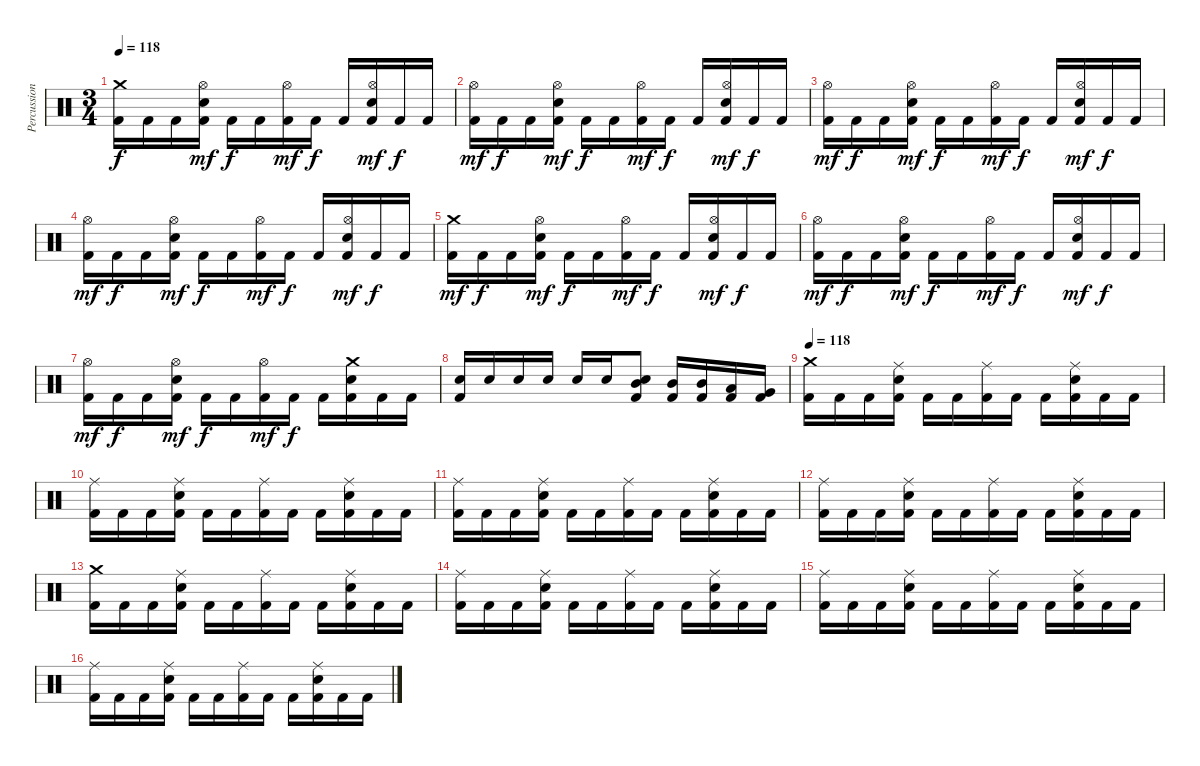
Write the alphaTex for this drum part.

\track ("Percussion" "Percussion") {instrument percussion}
\staff {score}
\articulation defaults
\ts (3 4)
\tempo 118
\clef neutral
\ks c
("Crash medium (hit)" "Kick (hit) 2").16{dy f} "Kick (hit) 2".16 "Kick (hit) 2".16 ("Hi-Hat (open)" "Electric Snare (hit)" "Kick (hit) 2").16{dy mf} "Kick (hit) 2".16{dy f} "Kick (hit) 2".16 ("Hi-Hat (open)" "Kick (hit) 2").16{dy mf} "Kick (hit) 2".16{dy f} "Kick (hit) 2".16 ("Hi-Hat (open)" "Electric Snare (hit)" "Kick (hit) 2").16{dy mf} "Kick (hit) 2".16{dy f} "Kick (hit) 2".16 |
("Hi-Hat (open)" "Kick (hit) 2").16{dy mf} "Kick (hit) 2".16{dy f} "Kick (hit) 2".16 ("Hi-Hat (open)" "Electric Snare (hit)" "Kick (hit) 2").16{dy mf} "Kick (hit) 2".16{dy f} "Kick (hit) 2".16 ("Hi-Hat (open)" "Kick (hit) 2").16{dy mf} "Kick (hit) 2".16{dy f} "Kick (hit) 2".16 ("Hi-Hat (open)" "Electric Snare (hit)" "Kick (hit) 2").16{dy mf} "Kick (hit) 2".16{dy f} "Kick (hit) 2".16 |
("Hi-Hat (open)" "Kick (hit) 2").16{dy mf} "Kick (hit) 2".16{dy f} "Kick (hit) 2".16 ("Hi-Hat (open)" "Electric Snare (hit)" "Kick (hit) 2").16{dy mf} "Kick (hit) 2".16{dy f} "Kick (hit) 2".16 ("Hi-Hat (open)" "Kick (hit) 2").16{dy mf} "Kick (hit) 2".16{dy f} "Kick (hit) 2".16 ("Hi-Hat (open)" "Electric Snare (hit)" "Kick (hit) 2").16{dy mf} "Kick (hit) 2".16{dy f} "Kick (hit) 2".16 |
("Hi-Hat (open)" "Kick (hit) 2").16{dy mf} "Kick (hit) 2".16{dy f} "Kick (hit) 2".16 ("Hi-Hat (open)" "Electric Snare (hit)" "Kick (hit) 2").16{dy mf} "Kick (hit) 2".16{dy f} "Kick (hit) 2".16 ("Hi-Hat (open)" "Kick (hit) 2").16{dy mf} "Kick (hit) 2".16{dy f} "Kick (hit) 2".16 ("Hi-Hat (open)" "Electric Snare (hit)" "Kick (hit) 2").16{dy mf} "Kick (hit) 2".16{dy f} "Kick (hit) 2".16 |
("Crash medium (hit)" "Kick (hit) 2").16{dy mf} "Kick (hit) 2".16{dy f} "Kick (hit) 2".16 ("Hi-Hat (open)" "Electric Snare (hit)" "Kick (hit) 2").16{dy mf} "Kick (hit) 2".16{dy f} "Kick (hit) 2".16 ("Hi-Hat (open)" "Kick (hit) 2").16{dy mf} "Kick (hit) 2".16{dy f} "Kick (hit) 2".16 ("Hi-Hat (open)" "Electric Snare (hit)" "Kick (hit) 2").16{dy mf} "Kick (hit) 2".16{dy f} "Kick (hit) 2".16 |
("Hi-Hat (open)" "Kick (hit) 2").16{dy mf} "Kick (hit) 2".16{dy f} "Kick (hit) 2".16 ("Hi-Hat (open)" "Electric Snare (hit)" "Kick (hit) 2").16{dy mf} "Kick (hit) 2".16{dy f} "Kick (hit) 2".16 ("Hi-Hat (open)" "Kick (hit) 2").16{dy mf} "Kick (hit) 2".16{dy f} "Kick (hit) 2".16 ("Hi-Hat (open)" "Electric Snare (hit)" "Kick (hit) 2").16{dy mf} "Kick (hit) 2".16{dy f} "Kick (hit) 2".16 |
("Hi-Hat (open)" "Kick (hit) 2").16{dy mf} "Kick (hit) 2".16{dy f} "Kick (hit) 2".16 ("Hi-Hat (open)" "Electric Snare (hit)" "Kick (hit) 2").16{dy mf} "Kick (hit) 2".16{dy f} "Kick (hit) 2".16 ("Hi-Hat (open)" "Kick (hit) 2").16{dy mf} "Kick (hit) 2".16{dy f} "Kick (hit) 2".16 ("Crash medium (hit)" "Electric Snare (hit)" "Kick (hit) 2").16 "Kick (hit) 2".16 "Kick (hit) 2".16 |
("Electric Snare (hit)" "Kick (hit) 2").16 "Electric Snare (hit)".16 "Electric Snare (hit)".16 "Electric Snare (hit)".16 "Electric Snare (hit)".16 "Electric Snare (hit)".16 ("Mid Tom (hit)" "Electric Snare (hit)" "Kick (hit) 2").8 ("Mid Tom (hit)" "Kick (hit) 2").16 ("Mid Tom (hit)" "Kick (hit) 2").16 ("Low Tom (hit)" "Kick (hit) 2").16 ("Very Low Tom (hit)" "Kick (hit) 2").16 |
\tempo 118
("Crash medium (hit)" "Kick (hit) 2").16 "Kick (hit) 2".16 "Kick (hit) 2".16 ("Ride (middle)" "Electric Snare (hit)" "Kick (hit) 2").16 "Kick (hit) 2".16 "Kick (hit) 2".16 ("Ride (middle)" "Kick (hit) 2").16 "Kick (hit) 2".16 "Kick (hit) 2".16 ("Ride (middle)" "Electric Snare (hit)" "Kick (hit) 2").16 "Kick (hit) 2".16 "Kick (hit) 2".16 |
("Ride (middle)" "Kick (hit) 2").16 "Kick (hit) 2".16 "Kick (hit) 2".16 ("Ride (middle)" "Electric Snare (hit)" "Kick (hit) 2").16 "Kick (hit) 2".16 "Kick (hit) 2".16 ("Ride (middle)" "Kick (hit) 2").16 "Kick (hit) 2".16 "Kick (hit) 2".16 ("Ride (middle)" "Electric Snare (hit)" "Kick (hit) 2").16 "Kick (hit) 2".16 "Kick (hit) 2".16 |
("Ride (middle)" "Kick (hit) 2").16 "Kick (hit) 2".16 "Kick (hit) 2".16 ("Ride (middle)" "Electric Snare (hit)" "Kick (hit) 2").16 "Kick (hit) 2".16 "Kick (hit) 2".16 ("Ride (middle)" "Kick (hit) 2").16 "Kick (hit) 2".16 "Kick (hit) 2".16 ("Ride (middle)" "Electric Snare (hit)" "Kick (hit) 2").16 "Kick (hit) 2".16 "Kick (hit) 2".16 |
("Ride (middle)" "Kick (hit) 2").16 "Kick (hit) 2".16 "Kick (hit) 2".16 ("Ride (middle)" "Electric Snare (hit)" "Kick (hit) 2").16 "Kick (hit) 2".16 "Kick (hit) 2".16 ("Ride (middle)" "Kick (hit) 2").16 "Kick (hit) 2".16 "Kick (hit) 2".16 ("Ride (middle)" "Electric Snare (hit)" "Kick (hit) 2").16 "Kick (hit) 2".16 "Kick (hit) 2".16 |
("Crash medium (hit)" "Kick (hit) 2").16 "Kick (hit) 2".16 "Kick (hit) 2".16 ("Ride (middle)" "Electric Snare (hit)" "Kick (hit) 2").16 "Kick (hit) 2".16 "Kick (hit) 2".16 ("Ride (middle)" "Kick (hit) 2").16 "Kick (hit) 2".16 "Kick (hit) 2".16 ("Ride (middle)" "Electric Snare (hit)" "Kick (hit) 2").16 "Kick (hit) 2".16 "Kick (hit) 2".16 |
("Ride (middle)" "Kick (hit) 2").16 "Kick (hit) 2".16 "Kick (hit) 2".16 ("Ride (middle)" "Electric Snare (hit)" "Kick (hit) 2").16 "Kick (hit) 2".16 "Kick (hit) 2".16 ("Ride (middle)" "Kick (hit) 2").16 "Kick (hit) 2".16 "Kick (hit) 2".16 ("Ride (middle)" "Electric Snare (hit)" "Kick (hit) 2").16 "Kick (hit) 2".16 "Kick (hit) 2".16 |
("Ride (middle)" "Kick (hit) 2").16 "Kick (hit) 2".16 "Kick (hit) 2".16 ("Ride (middle)" "Electric Snare (hit)" "Kick (hit) 2").16 "Kick (hit) 2".16 "Kick (hit) 2".16 ("Ride (middle)" "Kick (hit) 2").16 "Kick (hit) 2".16 "Kick (hit) 2".16 ("Ride (middle)" "Electric Snare (hit)" "Kick (hit) 2").16 "Kick (hit) 2".16 "Kick (hit) 2".16 |
("Ride (middle)" "Kick (hit) 2").16 "Kick (hit) 2".16 "Kick (hit) 2".16 ("Ride (middle)" "Electric Snare (hit)" "Kick (hit) 2").16 "Kick (hit) 2".16 "Kick (hit) 2".16 ("Ride (middle)" "Kick (hit) 2").16 "Kick (hit) 2".16 "Kick (hit) 2".16 ("Ride (middle)" "Electric Snare (hit)" "Kick (hit) 2").16 "Kick (hit) 2".16 "Kick (hit) 2".16
